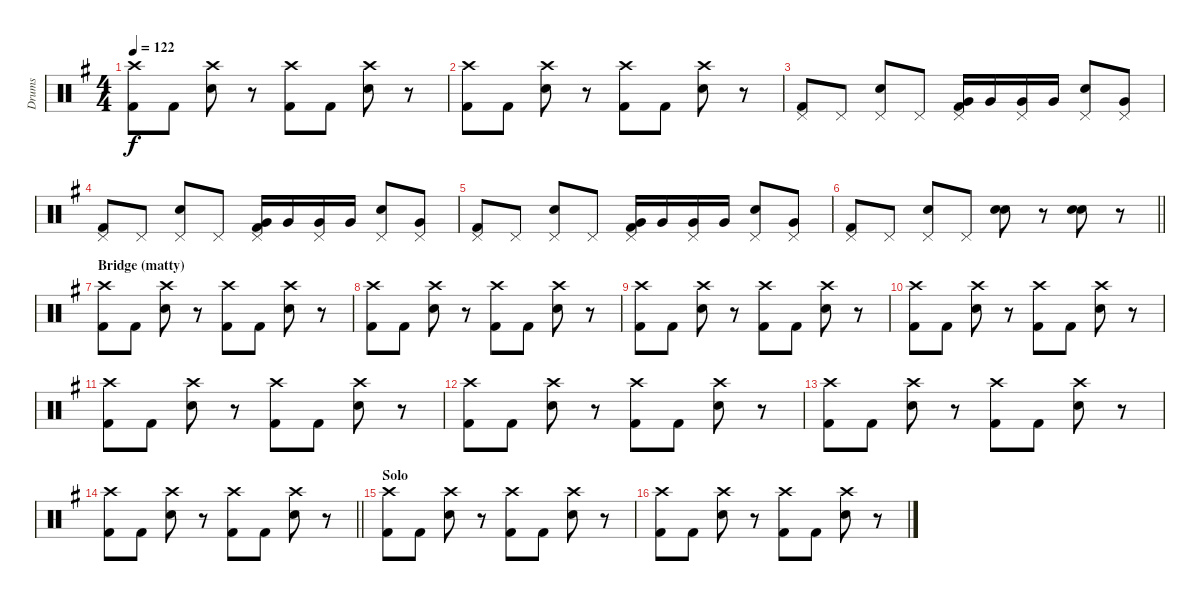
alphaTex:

\track ("Drums" "Drums") {instrument percussion bank 127}
\staff {score}
\articulation defaults
\ts (4 4)
\tempo 122
\clef neutral
\ks eminor
("Crash high (hit)" "Kick (hit) 2").8{dy f} "Kick (hit) 2".8 ("Crash high (hit)" "Snare (hit) 2").8 r.8 ("Crash high (hit)" "Kick (hit) 2").8 "Kick (hit) 2".8 ("Crash high (hit)" "Snare (hit) 2").8 r.8 |
("Crash high (hit)" "Kick (hit) 2").8 "Kick (hit) 2".8 ("Crash high (hit)" "Snare (hit) 2").8 r.8 ("Crash high (hit)" "Kick (hit) 2").8 "Kick (hit) 2".8 ("Crash high (hit)" "Snare (hit) 2").8 r.8 |
("Pedal Hi-Hat (hit)" "Kick (hit) 2").8 "Pedal Hi-Hat (hit)".8 ("Pedal Hi-Hat (hit)" "Snare (hit) 2").8 "Pedal Hi-Hat (hit)".8 ("Pedal Hi-Hat (hit)" "Very Low Tom (hit)" "Kick (hit) 2").16 "Very Low Tom (hit)".16 ("Pedal Hi-Hat (hit)" "Very Low Tom (hit)").16 "Very Low Tom (hit)".16 ("Pedal Hi-Hat (hit)" "Snare (hit) 2").8 ("Pedal Hi-Hat (hit)" "Very Low Tom (hit)").8 |
("Pedal Hi-Hat (hit)" "Kick (hit) 2").8 "Pedal Hi-Hat (hit)".8 ("Pedal Hi-Hat (hit)" "Snare (hit) 2").8 "Pedal Hi-Hat (hit)".8 ("Pedal Hi-Hat (hit)" "Very Low Tom (hit)" "Kick (hit) 2").16 "Very Low Tom (hit)".16 ("Pedal Hi-Hat (hit)" "Very Low Tom (hit)").16 "Very Low Tom (hit)".16 ("Pedal Hi-Hat (hit)" "Snare (hit) 2").8 ("Pedal Hi-Hat (hit)" "Very Low Tom (hit)").8 |
("Pedal Hi-Hat (hit)" "Kick (hit) 2").8 "Pedal Hi-Hat (hit)".8 ("Pedal Hi-Hat (hit)" "Snare (hit) 2").8 "Pedal Hi-Hat (hit)".8 ("Pedal Hi-Hat (hit)" "Very Low Tom (hit)" "Kick (hit) 2").16 "Very Low Tom (hit)".16 ("Pedal Hi-Hat (hit)" "Very Low Tom (hit)").16 "Very Low Tom (hit)".16 ("Pedal Hi-Hat (hit)" "Snare (hit) 2").8 ("Pedal Hi-Hat (hit)" "Very Low Tom (hit)").8 |
\barLineRight lightlight
("Pedal Hi-Hat (hit)" "Kick (hit) 2").8 "Pedal Hi-Hat (hit)".8 ("Pedal Hi-Hat (hit)" "Snare (hit) 2").8 "Pedal Hi-Hat (hit)".8 ("Snare (hit) 2" "Snare (hit) 2").8 r.8 ("Snare (hit) 2" "Snare (hit) 2").8 r.8 |
\section ("" "Bridge (matty)")
("Crash high (hit)" "Kick (hit) 2").8 "Kick (hit) 2".8 ("Crash high (hit)" "Snare (hit) 2").8 r.8 ("Crash high (hit)" "Kick (hit) 2").8 "Kick (hit) 2".8 ("Crash high (hit)" "Snare (hit) 2").8 r.8 |
("Crash high (hit)" "Kick (hit) 2").8 "Kick (hit) 2".8 ("Crash high (hit)" "Snare (hit) 2").8 r.8 ("Crash high (hit)" "Kick (hit) 2").8 "Kick (hit) 2".8 ("Crash high (hit)" "Snare (hit) 2").8 r.8 |
("Crash high (hit)" "Kick (hit) 2").8 "Kick (hit) 2".8 ("Crash high (hit)" "Snare (hit) 2").8 r.8 ("Crash high (hit)" "Kick (hit) 2").8 "Kick (hit) 2".8 ("Crash high (hit)" "Snare (hit) 2").8 r.8 |
("Crash high (hit)" "Kick (hit) 2").8 "Kick (hit) 2".8 ("Crash high (hit)" "Snare (hit) 2").8 r.8 ("Crash high (hit)" "Kick (hit) 2").8 "Kick (hit) 2".8 ("Crash high (hit)" "Snare (hit) 2").8 r.8 |
("Crash high (hit)" "Kick (hit) 2").8 "Kick (hit) 2".8 ("Crash high (hit)" "Snare (hit) 2").8 r.8 ("Crash high (hit)" "Kick (hit) 2").8 "Kick (hit) 2".8 ("Crash high (hit)" "Snare (hit) 2").8 r.8 |
("Crash high (hit)" "Kick (hit) 2").8 "Kick (hit) 2".8 ("Crash high (hit)" "Snare (hit) 2").8 r.8 ("Crash high (hit)" "Kick (hit) 2").8 "Kick (hit) 2".8 ("Crash high (hit)" "Snare (hit) 2").8 r.8 |
("Crash high (hit)" "Kick (hit) 2").8 "Kick (hit) 2".8 ("Crash high (hit)" "Snare (hit) 2").8 r.8 ("Crash high (hit)" "Kick (hit) 2").8 "Kick (hit) 2".8 ("Crash high (hit)" "Snare (hit) 2").8 r.8 |
\barLineRight lightlight
("Crash high (hit)" "Kick (hit) 2").8 "Kick (hit) 2".8 ("Crash high (hit)" "Snare (hit) 2").8 r.8 ("Crash high (hit)" "Kick (hit) 2").8 "Kick (hit) 2".8 ("Crash high (hit)" "Snare (hit) 2").8 r.8 |
\section ("" "Solo")
("Crash high (hit)" "Kick (hit) 2").8 "Kick (hit) 2".8 ("Crash high (hit)" "Snare (hit) 2").8 r.8 ("Crash high (hit)" "Kick (hit) 2").8 "Kick (hit) 2".8 ("Crash high (hit)" "Snare (hit) 2").8 r.8 |
("Crash high (hit)" "Kick (hit) 2").8 "Kick (hit) 2".8 ("Crash high (hit)" "Snare (hit) 2").8 r.8 ("Crash high (hit)" "Kick (hit) 2").8 "Kick (hit) 2".8 ("Crash high (hit)" "Snare (hit) 2").8 r.8
